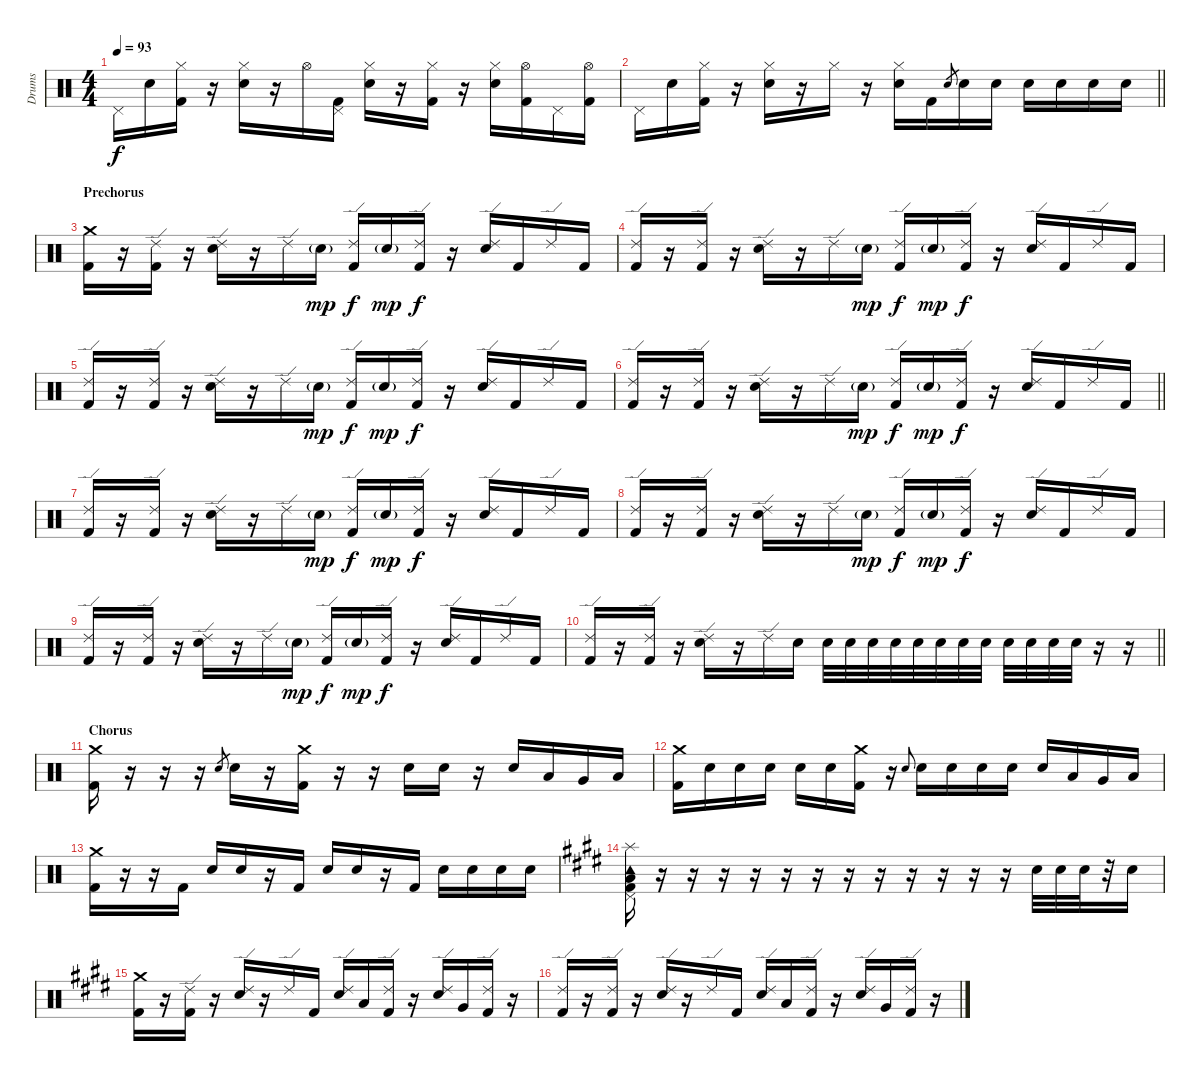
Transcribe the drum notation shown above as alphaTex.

\track ("Drums" "Drums") {instrument percussion}
\staff {score}
\articulation defaults
\ts (4 4)
\tempo 93
\clef neutral
\ks c "Pedal Hi-Hat (hit)".16{dy f} "Snare (hit) 2".16
("Hi-Hat (closed)" "Kick (hit) 2").16 r.16 ("Hi-Hat (closed)" "Snare (hit) 2").16 r.16 "Hi-Hat (open)".16 ("Pedal Hi-Hat (hit)" "Kick (hit) 2").16 ("Hi-Hat (closed)" "Snare (hit) 2").16 r.16 ("Hi-Hat (closed)" "Kick (hit) 2").16 r.16 ("Hi-Hat (closed)" "Snare (hit) 2").16 ("Hi-Hat (open)" "Kick (hit) 2").16 "Pedal Hi-Hat (hit)".16 ("Hi-Hat (open)" "Kick (hit) 2").16 |
\barLineRight lightlight "Pedal Hi-Hat (hit)".16 "Snare (hit) 2".16
("Hi-Hat (closed)" "Kick (hit) 2").16 r.16 ("Hi-Hat (closed)" "Snare (hit) 2").16 r.16 "Hi-Hat (closed)".16 r.16 ("Hi-Hat (closed)" "Snare (hit) 2").16 "Kick (hit) 2".16 "Snare (hit) 2".8{gr} "Snare (hit) 2".16 "Snare (hit) 2".16 "Snare (hit) 2".16 "Snare (hit) 2".16 "Snare (hit) 2".16 "Snare (hit) 2".16 |
\section ("" "Prechorus")
("Crash medium (hit)" "Kick (hit) 2").16 r.16 ("Ride (edge) 2" "Kick (hit) 2").16 r.16 ("Ride (edge) 2" "Snare (hit) 2").16 r.16 "Ride (edge) 2".16 "Snare (hit) 2"{g}.16{dy mp} ("Ride (edge) 2" "Kick (hit) 2").16{dy f} "Snare (hit) 2"{g}.16{dy mp} ("Ride (edge) 2" "Kick (hit) 2").16{dy f} r.16 ("Ride (edge) 2" "Snare (hit) 2").16 "Kick (hit) 2".16 "Ride (edge) 2".16 "Kick (hit) 2".16 |
("Ride (edge) 2" "Kick (hit) 2").16 r.16 ("Ride (edge) 2" "Kick (hit) 2").16 r.16 ("Ride (edge) 2" "Snare (hit) 2").16 r.16 "Ride (edge) 2".16 "Snare (hit) 2"{g}.16{dy mp} ("Ride (edge) 2" "Kick (hit) 2").16{dy f} "Snare (hit) 2"{g}.16{dy mp} ("Ride (edge) 2" "Kick (hit) 2").16{dy f} r.16 ("Ride (edge) 2" "Snare (hit) 2").16 "Kick (hit) 2".16 "Ride (edge) 2".16 "Kick (hit) 2".16 |
("Ride (edge) 2" "Kick (hit) 2").16 r.16 ("Ride (edge) 2" "Kick (hit) 2").16 r.16 ("Ride (edge) 2" "Snare (hit) 2").16 r.16 "Ride (edge) 2".16 "Snare (hit) 2"{g}.16{dy mp} ("Ride (edge) 2" "Kick (hit) 2").16{dy f} "Snare (hit) 2"{g}.16{dy mp} ("Ride (edge) 2" "Kick (hit) 2").16{dy f} r.16 ("Ride (edge) 2" "Snare (hit) 2").16 "Kick (hit) 2".16 "Ride (edge) 2".16 "Kick (hit) 2".16 |
\barLineRight lightlight
("Ride (edge) 2" "Kick (hit) 2").16 r.16 ("Ride (edge) 2" "Kick (hit) 2").16 r.16 ("Ride (edge) 2" "Snare (hit) 2").16 r.16 "Ride (edge) 2".16 "Snare (hit) 2"{g}.16{dy mp} ("Ride (edge) 2" "Kick (hit) 2").16{dy f} "Snare (hit) 2"{g}.16{dy mp} ("Ride (edge) 2" "Kick (hit) 2").16{dy f} r.16 ("Ride (edge) 2" "Snare (hit) 2").16 "Kick (hit) 2".16 "Ride (edge) 2".16 "Kick (hit) 2".16 |
("Ride (edge) 2" "Kick (hit) 2").16 r.16 ("Ride (edge) 2" "Kick (hit) 2").16 r.16 ("Ride (edge) 2" "Snare (hit) 2").16 r.16 "Ride (edge) 2".16 "Snare (hit) 2"{g}.16{dy mp} ("Ride (edge) 2" "Kick (hit) 2").16{dy f} "Snare (hit) 2"{g}.16{dy mp} ("Ride (edge) 2" "Kick (hit) 2").16{dy f} r.16 ("Ride (edge) 2" "Snare (hit) 2").16 "Kick (hit) 2".16 "Ride (edge) 2".16 "Kick (hit) 2".16 |
("Ride (edge) 2" "Kick (hit) 2").16 r.16 ("Ride (edge) 2" "Kick (hit) 2").16 r.16 ("Ride (edge) 2" "Snare (hit) 2").16 r.16 "Ride (edge) 2".16 "Snare (hit) 2"{g}.16{dy mp} ("Ride (edge) 2" "Kick (hit) 2").16{dy f} "Snare (hit) 2"{g}.16{dy mp} ("Ride (edge) 2" "Kick (hit) 2").16{dy f} r.16 ("Ride (edge) 2" "Snare (hit) 2").16 "Kick (hit) 2".16 "Ride (edge) 2".16 "Kick (hit) 2".16 |
("Ride (edge) 2" "Kick (hit) 2").16 r.16 ("Ride (edge) 2" "Kick (hit) 2").16 r.16 ("Ride (edge) 2" "Snare (hit) 2").16 r.16 "Ride (edge) 2".16 "Snare (hit) 2"{g}.16{dy mp} ("Ride (edge) 2" "Kick (hit) 2").16{dy f} "Snare (hit) 2"{g}.16{dy mp} ("Ride (edge) 2" "Kick (hit) 2").16{dy f} r.16 ("Ride (edge) 2" "Snare (hit) 2").16 "Kick (hit) 2".16 "Ride (edge) 2".16 "Kick (hit) 2".16 |
\barLineRight lightlight
("Ride (edge) 2" "Kick (hit) 2").16 r.16 ("Ride (edge) 2" "Kick (hit) 2").16 r.16 ("Ride (edge) 2" "Snare (hit) 2").16 r.16 "Ride (edge) 2".16 "Snare (hit) 2".16 "Snare (hit) 2".32 "Snare (hit) 2".32 "Snare (hit) 2".32 "Snare (hit) 2".32 "Snare (hit) 2".32 "Snare (hit) 2".32 "Snare (hit) 2".32 "Snare (hit) 2".32 "Snare (hit) 2".32 "Snare (hit) 2".32 "Snare (hit) 2".32 "Snare (hit) 2".32 r.16 r.16 |
\section ("" "Chorus")
("Crash medium (hit)" "Kick (hit) 2").16 r.16 r.16 r.16 "Snare (hit) 2".8{gr} "Snare (hit) 2".16 r.16 ("Crash medium (hit)" "Kick (hit) 2").16 r.16 r.16 "Snare (hit) 2".16 "Snare (hit) 2".16 r.16 "Snare (hit) 2".16 "Low Tom (hit)".16 "Very Low Tom (hit)".16 "Low Floor Tom (hit)".16 |
("Crash medium (hit)" "Kick (hit) 2").16 "Snare (hit) 2".16 "Snare (hit) 2".16 "Snare (hit) 2".16 "Snare (hit) 2".16 "Snare (hit) 2".16 ("Crash medium (hit)" "Kick (hit) 2").16 r.16 "Snare (hit) 2".8{gr onbeat} "Snare (hit) 2".16 "Snare (hit) 2".16 "Snare (hit) 2".16 "Snare (hit) 2".16 "Snare (hit) 2".16 "Low Tom (hit)".16 "Very Low Tom (hit)".16 "Low Floor Tom (hit)".16 |
("Crash medium (hit)" "Kick (hit) 2").16 r.16 r.16 "Kick (hit) 2".16 "Snare (hit) 2".16 "Snare (hit) 2".16 r.16 "Kick (hit) 2".16 "Snare (hit) 2".16 "Snare (hit) 2".16 r.16 "Kick (hit) 2".16 "Snare (hit) 2".16 "Snare (hit) 2".16 "Snare (hit) 2".16 "Snare (hit) 2".16 |
\ks e
("Pedal Hi-Hat (hit)" "Tambourine (hit)" "Splash (hit)" "Low Floor Tom (hit)" "Kick (hit) 2").16 r.16 r.16 r.16 r.16 r.16 r.16 r.16 r.16 r.16 r.16 r.16 r.16 "Snare (hit) 2".32 "Snare (hit) 2".32 "Snare (hit) 2".32 r.32 "Snare (hit) 2".16 |
("Crash medium (hit)" "Kick (hit) 2").16 r.16 ("Ride (edge) 2" "Kick (hit) 2").16 r.16 ("Ride (edge) 2" "Snare (hit) 2").16 r.16 "Ride (edge) 2".16 "Kick (hit) 2".16 ("Ride (edge) 2" "Snare (hit) 2").16 "Low Tom (hit)".16 ("Ride (edge) 2" "Kick (hit) 2").16 r.16 ("Ride (edge) 2" "Snare (hit) 2").16 "Very Low Tom (hit)".16 ("Ride (edge) 2" "Kick (hit) 2").16 r.16 |
("Ride (edge) 2" "Kick (hit) 2").16 r.16 ("Ride (edge) 2" "Kick (hit) 2").16 r.16 ("Ride (edge) 2" "Snare (hit) 2").16 r.16 "Ride (edge) 2".16 "Kick (hit) 2".16 ("Ride (edge) 2" "Snare (hit) 2").16 "Low Tom (hit)".16 ("Ride (edge) 2" "Kick (hit) 2").16 r.16 ("Ride (edge) 2" "Snare (hit) 2").16 "Very Low Tom (hit)".16 ("Ride (edge) 2" "Kick (hit) 2").16 r.16
